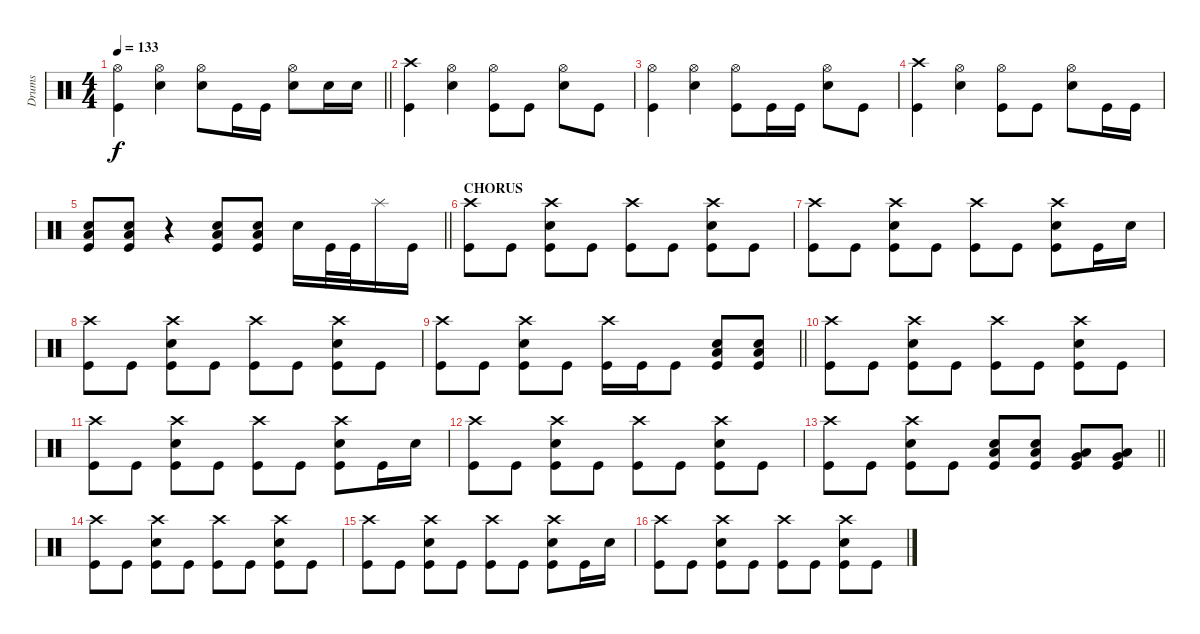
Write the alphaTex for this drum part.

\track ("Drums" "Drums") {instrument percussion}
\staff
\articulation defaults
\ts (4 4)
\tempo 133
\clef neutral
\barLineRight lightlight
\ks c
("Hi-Hat (open)" "Kick (hit)").4{dy f} ("Hi-Hat (open)" "Electric Snare (hit)").4 ("Hi-Hat (open)" "Electric Snare (hit)").8 "Kick (hit)".16 "Kick (hit)".16 ("Hi-Hat (open)" "Electric Snare (hit)").8 "Electric Snare (hit)".16 "Electric Snare (hit)".16 |
("Crash high (hit)" "Kick (hit)").4 ("Hi-Hat (open)" "Electric Snare (hit)").4 ("Hi-Hat (open)" "Kick (hit)").8 "Kick (hit)".8 ("Hi-Hat (open)" "Electric Snare (hit)").8 "Kick (hit)".8 |
("Hi-Hat (open)" "Kick (hit)").4 ("Hi-Hat (open)" "Electric Snare (hit)").4 ("Hi-Hat (open)" "Kick (hit)").8 "Kick (hit)".16 "Kick (hit)".16 ("Hi-Hat (open)" "Electric Snare (hit)").8 "Kick (hit)".8 |
("Crash high (hit)" "Kick (hit)").4 ("Hi-Hat (open)" "Electric Snare (hit)").4 ("Hi-Hat (open)" "Kick (hit)").8 "Kick (hit)".8 ("Hi-Hat (open)" "Electric Snare (hit)").8 "Kick (hit)".16 "Kick (hit)".16 |
\barLineRight lightlight
("Low Floor Tom (hit)" "Electric Snare (hit)" "Kick (hit)").8 ("Low Floor Tom (hit)" "Electric Snare (hit)" "Kick (hit)").8 r.4 ("Low Floor Tom (hit)" "Electric Snare (hit)" "Kick (hit)").8 ("Low Floor Tom (hit)" "Electric Snare (hit)" "Kick (hit)").8 "Electric Snare (hit)".16 "Kick (hit)".32 "Kick (hit)".32 "Splash (hit)".16 "Kick (hit)".16 |
\section ("" "CHORUS")
("Crash high (hit)" "Kick (hit)").8 "Kick (hit)".8 ("Crash high (hit)" "Electric Snare (hit)" "Kick (hit)").8 "Kick (hit)".8 ("Crash high (hit)" "Kick (hit)").8 "Kick (hit)".8 ("Crash high (hit)" "Electric Snare (hit)" "Kick (hit)").8 "Kick (hit)".8 |
("Crash high (hit)" "Kick (hit)").8 "Kick (hit)".8 ("Crash high (hit)" "Electric Snare (hit)" "Kick (hit)").8 "Kick (hit)".8 ("Crash high (hit)" "Kick (hit)").8 "Kick (hit)".8 ("Crash high (hit)" "Electric Snare (hit)" "Kick (hit)").8 "Kick (hit)".16 "Electric Snare (hit)".16 |
("Crash high (hit)" "Kick (hit)").8 "Kick (hit)".8 ("Crash high (hit)" "Electric Snare (hit)" "Kick (hit)").8 "Kick (hit)".8 ("Crash high (hit)" "Kick (hit)").8 "Kick (hit)".8 ("Crash high (hit)" "Electric Snare (hit)" "Kick (hit)").8 "Kick (hit)".8 |
\barLineRight lightlight
("Crash high (hit)" "Kick (hit)").8 "Kick (hit)".8 ("Crash high (hit)" "Electric Snare (hit)" "Kick (hit)").8 "Kick (hit)".8 ("Crash high (hit)" "Kick (hit)").16 "Kick (hit)".16 "Kick (hit)".8 ("Low Floor Tom (hit)" "Electric Snare (hit)" "Kick (hit)").8 ("Low Floor Tom (hit)" "Electric Snare (hit)" "Kick (hit)").8 |
("Crash high (hit)" "Kick (hit)").8 "Kick (hit)".8 ("Crash high (hit)" "Electric Snare (hit)" "Kick (hit)").8 "Kick (hit)".8 ("Crash high (hit)" "Kick (hit)").8 "Kick (hit)".8 ("Crash high (hit)" "Electric Snare (hit)" "Kick (hit)").8 "Kick (hit)".8 |
("Crash high (hit)" "Kick (hit)").8 "Kick (hit)".8 ("Crash high (hit)" "Electric Snare (hit)" "Kick (hit)").8 "Kick (hit)".8 ("Crash high (hit)" "Kick (hit)").8 "Kick (hit)".8 ("Crash high (hit)" "Electric Snare (hit)" "Kick (hit)").8 "Kick (hit)".16 "Electric Snare (hit)".16 |
("Crash high (hit)" "Kick (hit)").8 "Kick (hit)".8 ("Crash high (hit)" "Electric Snare (hit)" "Kick (hit)").8 "Kick (hit)".8 ("Crash high (hit)" "Kick (hit)").8 "Kick (hit)".8 ("Crash high (hit)" "Electric Snare (hit)" "Kick (hit)").8 "Kick (hit)".8 |
\barLineRight lightlight
("Crash high (hit)" "Kick (hit)").8 "Kick (hit)".8 ("Crash high (hit)" "Electric Snare (hit)" "Kick (hit)").8 "Kick (hit)".8 ("Low Floor Tom (hit)" "Electric Snare (hit)" "Kick (hit)").8 ("Low Floor Tom (hit)" "Electric Snare (hit)" "Kick (hit)").8 ("Very Low Tom (hit)" "Low Floor Tom (hit)" "Kick (hit)").8 ("Very Low Tom (hit)" "Low Floor Tom (hit)" "Kick (hit)").8 |
("Crash high (hit)" "Kick (hit)").8 "Kick (hit)".8 ("Crash high (hit)" "Electric Snare (hit)" "Kick (hit)").8 "Kick (hit)".8 ("Crash high (hit)" "Kick (hit)").8 "Kick (hit)".8 ("Crash high (hit)" "Electric Snare (hit)" "Kick (hit)").8 "Kick (hit)".8 |
("Crash high (hit)" "Kick (hit)").8 "Kick (hit)".8 ("Crash high (hit)" "Electric Snare (hit)" "Kick (hit)").8 "Kick (hit)".8 ("Crash high (hit)" "Kick (hit)").8 "Kick (hit)".8 ("Crash high (hit)" "Electric Snare (hit)" "Kick (hit)").8 "Kick (hit)".16 "Electric Snare (hit)".16 |
("Crash high (hit)" "Kick (hit)").8 "Kick (hit)".8 ("Crash high (hit)" "Electric Snare (hit)" "Kick (hit)").8 "Kick (hit)".8 ("Crash high (hit)" "Kick (hit)").8 "Kick (hit)".8 ("Crash high (hit)" "Electric Snare (hit)" "Kick (hit)").8 "Kick (hit)".8
